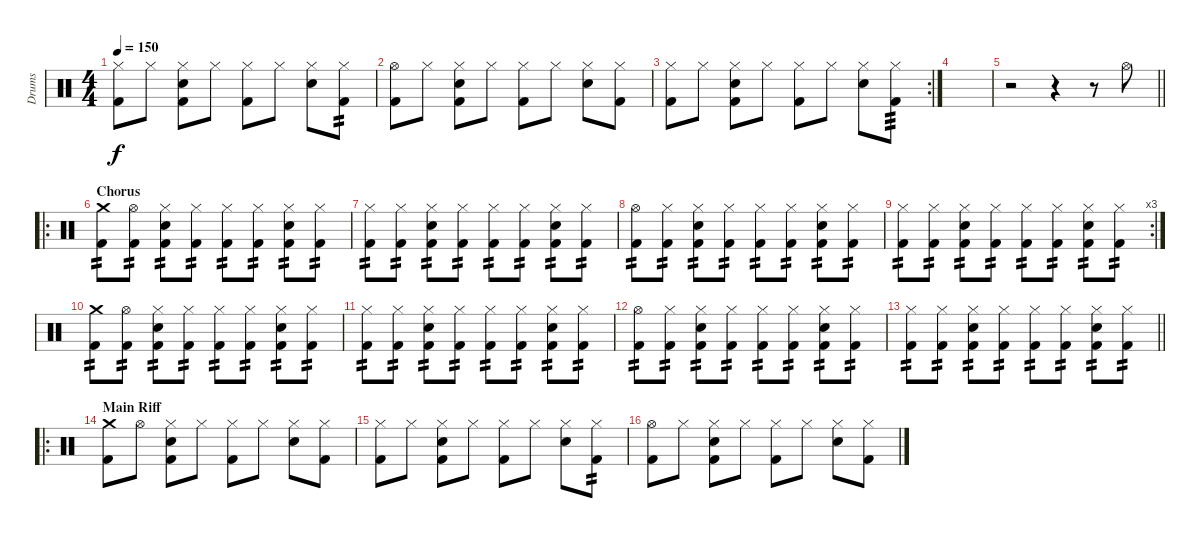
\track ("Drums" "Drums") {instrument percussion}
\staff {score}
\articulation defaults
\ts (4 4)
\tempo 150
\clef neutral
\ks c
("Kick (hit) 2" "Hi-Hat (closed)").8{dy f} "Hi-Hat (closed)".8 ("Kick (hit) 2" "Snare (hit) 2" "Hi-Hat (closed)").8 "Hi-Hat (closed)".8 ("Kick (hit) 2" "Hi-Hat (closed)").8 "Hi-Hat (closed)".8 ("Snare (hit) 2" "Hi-Hat (closed)").8 ("Kick (hit) 2" "Hi-Hat (closed)").8{tp 2} |
("Kick (hit) 2" "Hi-Hat (open)").8 "Hi-Hat (closed)".8 ("Kick (hit) 2" "Snare (hit) 2" "Hi-Hat (closed)").8 "Hi-Hat (closed)".8 ("Kick (hit) 2" "Hi-Hat (closed)").8 "Hi-Hat (closed)".8 ("Snare (hit) 2" "Hi-Hat (closed)").8 ("Kick (hit) 2" "Hi-Hat (closed)").8 |
\rc 2
("Kick (hit) 2" "Hi-Hat (closed)").8 "Hi-Hat (closed)".8 ("Kick (hit) 2" "Snare (hit) 2" "Hi-Hat (closed)").8 "Hi-Hat (closed)".8 ("Kick (hit) 2" "Hi-Hat (closed)").8 "Hi-Hat (closed)".8 ("Snare (hit) 2" "Hi-Hat (closed)").8 ("Kick (hit) 2" "Hi-Hat (closed)").8{tp 3} |
|
\barLineRight lightlight
r.2 r.4 r.8 "Hi-Hat (open)".8 |
\ro
\section ("" "Chorus")
("Kick (hit) 2" "Crash medium (hit)").8{tp 2} ("Kick (hit) 2" "Hi-Hat (open)").8{tp 2} ("Kick (hit) 2" "Snare (hit) 2" "Hi-Hat (closed)").8{tp 2} ("Kick (hit) 2" "Hi-Hat (closed)").8{tp 2} ("Kick (hit) 2" "Hi-Hat (closed)").8{tp 2} ("Kick (hit) 2" "Hi-Hat (closed)").8{tp 2} ("Kick (hit) 2" "Snare (hit) 2" "Hi-Hat (closed)").8{tp 2} ("Kick (hit) 2" "Hi-Hat (closed)").8{tp 2} |
("Kick (hit) 2" "Hi-Hat (closed)").8{tp 2} ("Kick (hit) 2" "Hi-Hat (closed)").8{tp 2} ("Kick (hit) 2" "Snare (hit) 2" "Hi-Hat (closed)").8{tp 2} ("Kick (hit) 2" "Hi-Hat (closed)").8{tp 2} ("Kick (hit) 2" "Hi-Hat (closed)").8{tp 2} ("Kick (hit) 2" "Hi-Hat (closed)").8{tp 2} ("Kick (hit) 2" "Snare (hit) 2" "Hi-Hat (closed)").8{tp 2} ("Kick (hit) 2" "Hi-Hat (closed)").8{tp 2} |
("Kick (hit) 2" "Hi-Hat (open)").8{tp 2} ("Kick (hit) 2" "Hi-Hat (closed)").8{tp 2} ("Kick (hit) 2" "Snare (hit) 2" "Hi-Hat (closed)").8{tp 2} ("Kick (hit) 2" "Hi-Hat (closed)").8{tp 2} ("Kick (hit) 2" "Hi-Hat (closed)").8{tp 2} ("Kick (hit) 2" "Hi-Hat (closed)").8{tp 2} ("Kick (hit) 2" "Snare (hit) 2" "Hi-Hat (closed)").8{tp 2} ("Kick (hit) 2" "Hi-Hat (closed)").8{tp 2} |
\rc 3
("Kick (hit) 2" "Hi-Hat (closed)").8{tp 2} ("Kick (hit) 2" "Hi-Hat (closed)").8{tp 2} ("Kick (hit) 2" "Snare (hit) 2" "Hi-Hat (closed)").8{tp 2} ("Kick (hit) 2" "Hi-Hat (closed)").8{tp 2} ("Kick (hit) 2" "Hi-Hat (closed)").8{tp 2} ("Kick (hit) 2" "Hi-Hat (closed)").8{tp 2} ("Kick (hit) 2" "Snare (hit) 2" "Hi-Hat (closed)").8{tp 2} ("Kick (hit) 2" "Hi-Hat (closed)").8{tp 2} |
("Kick (hit) 2" "Crash medium (hit)").8{tp 2} ("Kick (hit) 2" "Hi-Hat (open)").8{tp 2} ("Kick (hit) 2" "Snare (hit) 2" "Hi-Hat (closed)").8{tp 2} ("Kick (hit) 2" "Hi-Hat (closed)").8{tp 2} ("Kick (hit) 2" "Hi-Hat (closed)").8{tp 2} ("Kick (hit) 2" "Hi-Hat (closed)").8{tp 2} ("Kick (hit) 2" "Snare (hit) 2" "Hi-Hat (closed)").8{tp 2} ("Kick (hit) 2" "Hi-Hat (closed)").8{tp 2} |
("Kick (hit) 2" "Hi-Hat (closed)").8{tp 2} ("Kick (hit) 2" "Hi-Hat (closed)").8{tp 2} ("Kick (hit) 2" "Snare (hit) 2" "Hi-Hat (closed)").8{tp 2} ("Kick (hit) 2" "Hi-Hat (closed)").8{tp 2} ("Kick (hit) 2" "Hi-Hat (closed)").8{tp 2} ("Kick (hit) 2" "Hi-Hat (closed)").8{tp 2} ("Kick (hit) 2" "Snare (hit) 2" "Hi-Hat (closed)").8{tp 2} ("Kick (hit) 2" "Hi-Hat (closed)").8{tp 2} |
("Kick (hit) 2" "Hi-Hat (open)").8{tp 2} ("Kick (hit) 2" "Hi-Hat (closed)").8{tp 2} ("Kick (hit) 2" "Snare (hit) 2" "Hi-Hat (closed)").8{tp 2} ("Kick (hit) 2" "Hi-Hat (closed)").8{tp 2} ("Kick (hit) 2" "Hi-Hat (closed)").8{tp 2} ("Kick (hit) 2" "Hi-Hat (closed)").8{tp 2} ("Kick (hit) 2" "Snare (hit) 2" "Hi-Hat (closed)").8{tp 2} ("Kick (hit) 2" "Hi-Hat (closed)").8{tp 2} |
\barLineRight lightlight
("Kick (hit) 2" "Hi-Hat (closed)").8{tp 2} ("Kick (hit) 2" "Hi-Hat (closed)").8{tp 2} ("Kick (hit) 2" "Snare (hit) 2" "Hi-Hat (closed)").8{tp 2} ("Kick (hit) 2" "Hi-Hat (closed)").8{tp 2} ("Kick (hit) 2" "Hi-Hat (closed)").8{tp 2} ("Kick (hit) 2" "Hi-Hat (closed)").8{tp 2} ("Kick (hit) 2" "Snare (hit) 2" "Hi-Hat (closed)").8{tp 2} ("Kick (hit) 2" "Hi-Hat (closed)").8{tp 2} |
\ro
\section ("" "Main Riff")
("Kick (hit) 2" "Crash medium (hit)").8 "Hi-Hat (open)".8 ("Kick (hit) 2" "Snare (hit) 2" "Hi-Hat (closed)").8 "Hi-Hat (closed)".8 ("Kick (hit) 2" "Hi-Hat (closed)").8 "Hi-Hat (closed)".8 ("Snare (hit) 2" "Hi-Hat (closed)").8 ("Kick (hit) 2" "Hi-Hat (closed)").8 |
("Kick (hit) 2" "Hi-Hat (closed)").8 "Hi-Hat (closed)".8 ("Kick (hit) 2" "Snare (hit) 2" "Hi-Hat (closed)").8 "Hi-Hat (closed)".8 ("Kick (hit) 2" "Hi-Hat (closed)").8 "Hi-Hat (closed)".8 ("Snare (hit) 2" "Hi-Hat (closed)").8 ("Kick (hit) 2" "Hi-Hat (closed)").8{tp 2} |
("Kick (hit) 2" "Hi-Hat (open)").8 "Hi-Hat (closed)".8 ("Kick (hit) 2" "Snare (hit) 2" "Hi-Hat (closed)").8 "Hi-Hat (closed)".8 ("Kick (hit) 2" "Hi-Hat (closed)").8 "Hi-Hat (closed)".8 ("Snare (hit) 2" "Hi-Hat (closed)").8 ("Kick (hit) 2" "Hi-Hat (closed)").8
